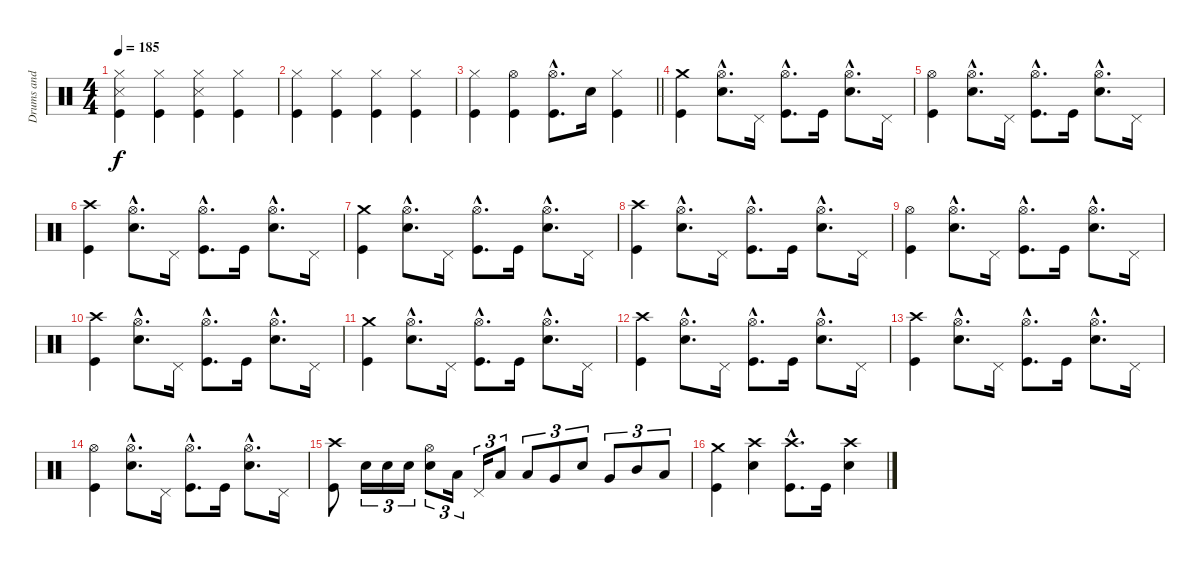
\track ("Drums and percussion" "Drums and ") {instrument percussion}
\staff {score}
\articulation defaults
\ts (4 4)
\tempo 185
\clef neutral
\ks c
("Hi-Hat (closed)" "Snare (side stick) 3" "Kick (hit)").4{dy f} ("Hi-Hat (closed)" "Kick (hit)").4 ("Hi-Hat (closed)" "Snare (side stick) 3" "Kick (hit)").4 ("Hi-Hat (closed)" "Kick (hit)").4 |
("Hi-Hat (closed)" "Kick (hit)").4 ("Hi-Hat (closed)" "Kick (hit)").4 ("Hi-Hat (closed)" "Kick (hit)").4 ("Hi-Hat (closed)" "Kick (hit)").4 |
\barLineRight lightlight
("Hi-Hat (closed)" "Kick (hit)").4 ("Hi-Hat (open)" "Kick (hit)").4 ("Hi-Hat (open)"{hac} "Kick (hit)"{hac}).8{d} "Snare (hit) 2".16 ("Hi-Hat (closed)" "Kick (hit)").4 |
("Crash medium (hit)" "Kick (hit)").4 ("Hi-Hat (open)"{hac} "Snare (hit) 2"{hac}).8{d} "Pedal Hi-Hat (hit)".16 ("Hi-Hat (open)"{hac} "Kick (hit)"{hac}).8{d} "Kick (hit)".16 ("Hi-Hat (open)"{hac} "Snare (hit) 2"{hac}).8{d} "Pedal Hi-Hat (hit)".16 |
("Hi-Hat (open)" "Kick (hit)").4 ("Hi-Hat (open)"{hac} "Snare (hit) 2"{hac}).8{d} "Pedal Hi-Hat (hit)".16 ("Hi-Hat (open)"{hac} "Kick (hit)"{hac}).8{d} "Kick (hit)".16 ("Hi-Hat (open)"{hac} "Snare (hit) 2"{hac}).8{d} "Pedal Hi-Hat (hit)".16 |
("Crash high (hit)" "Kick (hit)").4 ("Hi-Hat (open)"{hac} "Snare (hit) 2"{hac}).8{d} "Pedal Hi-Hat (hit)".16 ("Hi-Hat (open)"{hac} "Kick (hit)"{hac}).8{d} "Kick (hit)".16 ("Hi-Hat (open)"{hac} "Snare (hit) 2"{hac}).8{d} "Pedal Hi-Hat (hit)".16 |
("Crash medium (hit)" "Kick (hit)").4 ("Hi-Hat (open)"{hac} "Snare (hit) 2"{hac}).8{d} "Pedal Hi-Hat (hit)".16 ("Hi-Hat (open)"{hac} "Kick (hit)"{hac}).8{d} "Kick (hit)".16 ("Hi-Hat (open)"{hac} "Snare (hit) 2"{hac}).8{d} "Pedal Hi-Hat (hit)".16 |
("Crash high (hit)" "Kick (hit)").4 ("Hi-Hat (open)"{hac} "Snare (hit) 2"{hac}).8{d} "Pedal Hi-Hat (hit)".16 ("Hi-Hat (open)"{hac} "Kick (hit)"{hac}).8{d} "Kick (hit)".16 ("Hi-Hat (open)"{hac} "Snare (hit) 2"{hac}).8{d} "Pedal Hi-Hat (hit)".16 |
("Hi-Hat (open)" "Kick (hit)").4 ("Hi-Hat (open)"{hac} "Snare (hit) 2"{hac}).8{d} "Pedal Hi-Hat (hit)".16 ("Hi-Hat (open)"{hac} "Kick (hit)"{hac}).8{d} "Kick (hit)".16 ("Hi-Hat (open)"{hac} "Snare (hit) 2"{hac}).8{d} "Pedal Hi-Hat (hit)".16 |
("Crash high (hit)" "Kick (hit)").4 ("Hi-Hat (open)"{hac} "Snare (hit) 2"{hac}).8{d} "Pedal Hi-Hat (hit)".16 ("Hi-Hat (open)"{hac} "Kick (hit)"{hac}).8{d} "Kick (hit)".16 ("Hi-Hat (open)"{hac} "Snare (hit) 2"{hac}).8{d} "Pedal Hi-Hat (hit)".16 |
("Crash medium (hit)" "Kick (hit)").4 ("Hi-Hat (open)"{hac} "Snare (hit) 2"{hac}).8{d} "Pedal Hi-Hat (hit)".16 ("Hi-Hat (open)"{hac} "Kick (hit)"{hac}).8{d} "Kick (hit)".16 ("Hi-Hat (open)"{hac} "Snare (hit) 2"{hac}).8{d} "Pedal Hi-Hat (hit)".16 |
("Crash high (hit)" "Kick (hit)").4 ("Hi-Hat (open)"{hac} "Snare (hit) 2"{hac}).8{d} "Pedal Hi-Hat (hit)".16 ("Hi-Hat (open)"{hac} "Kick (hit)"{hac}).8{d} "Kick (hit)".16 ("Hi-Hat (open)"{hac} "Snare (hit) 2"{hac}).8{d} "Pedal Hi-Hat (hit)".16 |
("Crash high (hit)" "Kick (hit)").4 ("Hi-Hat (open)"{hac} "Snare (hit) 2"{hac}).8{d} "Pedal Hi-Hat (hit)".16 ("Hi-Hat (open)"{hac} "Kick (hit)"{hac}).8{d} "Kick (hit)".16 ("Hi-Hat (open)"{hac} "Snare (hit) 2"{hac}).8{d} "Pedal Hi-Hat (hit)".16 |
("Hi-Hat (open)" "Kick (hit)").4 ("Hi-Hat (open)"{hac} "Snare (hit) 2"{hac}).8{d} "Pedal Hi-Hat (hit)".16 ("Hi-Hat (open)"{hac} "Kick (hit)"{hac}).8{d} "Kick (hit)".16 ("Hi-Hat (open)"{hac} "Snare (hit) 2"{hac}).8{d} "Pedal Hi-Hat (hit)".16 |
("Crash high (hit)" "Kick (hit)").8 "Snare (hit) 2".16{tu (3 2)} "Snare (hit) 2".16{tu (3 2)} "Snare (hit) 2".16{tu (3 2)} ("Hi-Hat (open)" "Snare (hit) 2").8{tu (3 2)} "Low Tom (hit)".16{tu (3 2)} "Pedal Hi-Hat (hit)".16{tu (3 2)} "Low Tom (hit)".8{tu (3 2)} "Low Tom (hit)".8{tu (3 2)} "Very Low Tom (hit)".8{tu (3 2)} "Snare (hit) 2".8{tu (3 2)} "Very Low Tom (hit)".8{tu (3 2)} "Mid Tom (hit)".8{tu (3 2)} "Low Floor Tom (hit)".8{tu (3 2)} |
("Crash medium (hit)" "Kick (hit)").4 ("Crash high (hit)" "Snare (hit) 2").4 ("Crash high (hit)"{hac} "Kick (hit)"{hac}).8{d} "Kick (hit)".16 ("Crash high (hit)" "Snare (hit) 2").4
